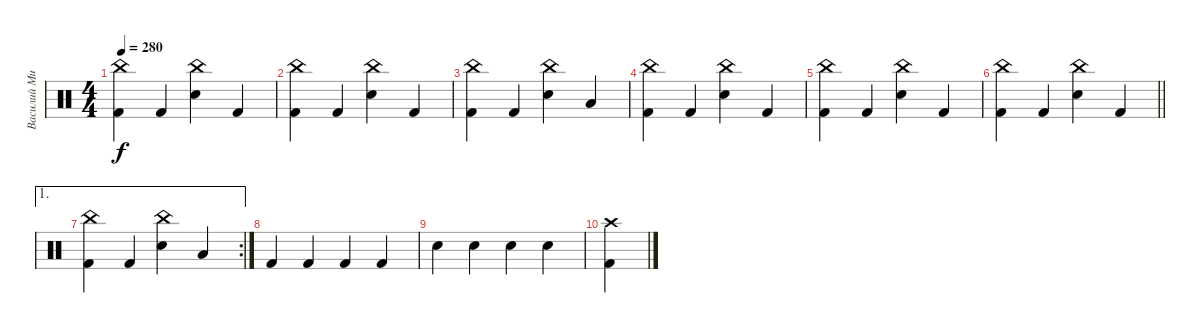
\track ("Василий Михалыч-ударные" "Василий Ми") {instrument percussion}
\staff {score}
\articulation defaults
\ts (4 4)
\tempo 280
\clef neutral
\ks c
("Kick (hit) 2" "China (hit)").4{dy f} "Kick (hit) 2".4 ("Snare (hit) 2" "China (hit)").4 "Kick (hit) 2".4 |
("Kick (hit) 2" "China (hit)").4 "Kick (hit) 2".4 ("Snare (hit) 2" "China (hit)").4 "Kick (hit) 2".4 |
("Kick (hit) 2" "China (hit)").4 "Kick (hit) 2".4 ("Snare (hit) 2" "China (hit)").4 "Low Tom (hit)".4 |
("Kick (hit) 2" "China (hit)").4 "Kick (hit) 2".4 ("Snare (hit) 2" "China (hit)").4 "Kick (hit) 2".4 |
("Kick (hit) 2" "China (hit)").4 "Kick (hit) 2".4 ("Snare (hit) 2" "China (hit)").4 "Kick (hit) 2".4 |
\barLineRight lightlight
("Kick (hit) 2" "China (hit)").4 "Kick (hit) 2".4 ("Snare (hit) 2" "China (hit)").4 "Kick (hit) 2".4 |
\ae 1
\rc 2
("Kick (hit) 2" "China (hit)").4 "Kick (hit) 2".4 ("Snare (hit) 2" "China (hit)").4 "Low Tom (hit)".4 |
"Kick (hit) 2".4 "Kick (hit) 2".4 "Kick (hit) 2".4 "Kick (hit) 2".4 |
"Snare (hit) 2".4 "Snare (hit) 2".4 "Snare (hit) 2".4 "Snare (hit) 2".4 |
("Kick (hit) 2" "Crash high (hit)").4
